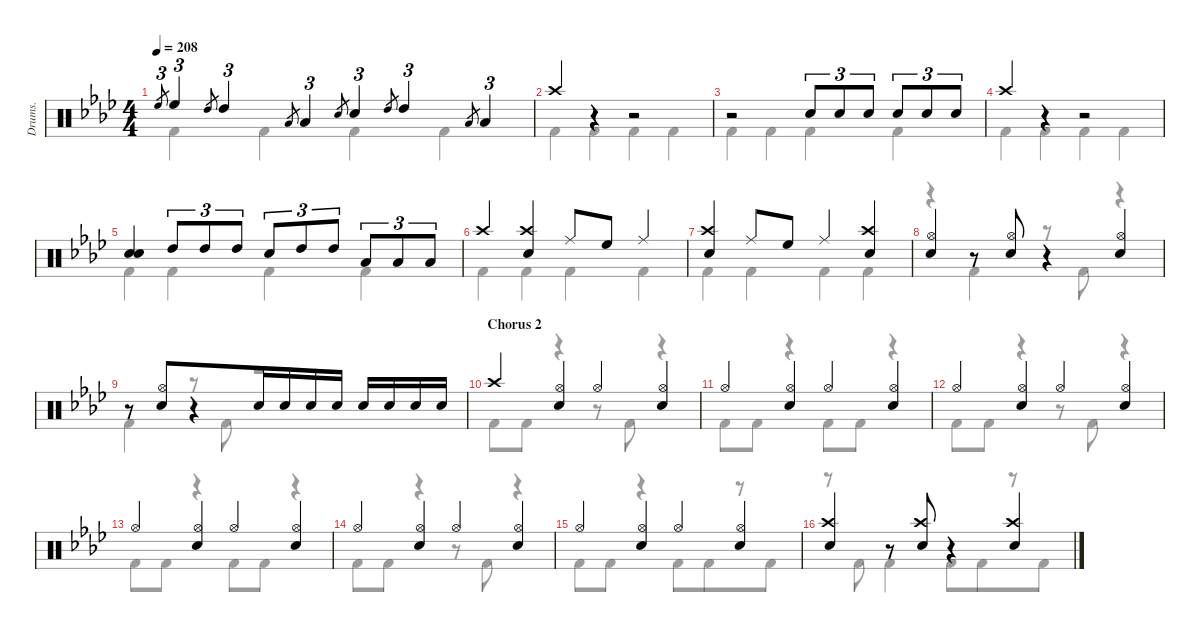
\defaultSystemsLayout 4
\hideDynamics
\otherSystemsTrackNameOrientation horizontal
\track ("Drumkit" "Drums.") {defaultSystemsLayout 4 instrument percussion}
\staff {score}
\articulation defaults
\voice
\ts (4 4)
\tempo 208
\clef neutral
\ks fminor "High Floor Tom (hit)"{acc forcenatural}.8{tu (3 2) gr dy mf} "High Floor Tom (hit)"{acc forcenatural}.4{tu (3 2)} "High Tom (hit)"{acc forcenatural}.8{tu (3 2) gr} "High Tom (hit)"{acc forcenatural}.4{tu (3 2)} "Low Tom (hit)"{acc forcenatural}.8{tu (3 2) gr} "Low Tom (hit)"{acc forcenatural}.4{tu (3 2)} "Snare (hit) 2"{acc forcenatural}.8{tu (3 2) gr} "Snare (hit) 2"{acc forcenatural}.4{tu (3 2)} "High Tom (hit)"{acc forcenatural}.8{tu (3 2) gr} "High Tom (hit)"{acc forcenatural}.4{tu (3 2)} "Low Tom (hit)"{acc forcenatural}.8{tu (3 2) gr} "Low Tom (hit)"{acc forcenatural}.4{tu (3 2)}
|
"Crash high (hit)"{acc forcenatural}.4 r.4 r.2 |
r.2 "Snare (hit) 2"{acc forcenatural}.8{tu (3 2)} "Snare (hit) 2"{acc forcenatural}.8{tu (3 2)} "Snare (hit) 2"{acc forcenatural}.8{tu (3 2)} "Snare (hit) 2"{acc forcenatural}.8{tu (3 2)} "Snare (hit) 2"{acc forcenatural}.8{tu (3 2)} "Snare (hit) 2"{acc forcenatural}.8{tu (3 2)} |
"Crash high (hit)"{acc forcenatural}.4 r.4 r.2 |
("Snare (hit) 2"{acc forcenatural} "Snare (hit) 2"{acc forcenatural}).4 "High Tom (hit)"{acc forcenatural}.8{tu (3 2)} "High Tom (hit)"{acc forcenatural}.8{tu (3 2)} "High Tom (hit)"{acc forcenatural}.8{tu (3 2)} "Snare (hit) 2"{acc forcenatural}.8{tu (3 2)} "High Tom (hit)"{acc forcenatural}.8{tu (3 2)} "High Tom (hit)"{acc forcenatural}.8{tu (3 2)} "Low Tom (hit)"{acc forcenatural}.8{tu (3 2)} "Low Tom (hit)"{acc forcenatural}.8{tu (3 2)} "Low Tom (hit)"{acc forcenatural}.8{tu (3 2)} |
"Crash high (hit)"{acc forcenatural}.4 ("Crash high (hit)"{acc forcenatural} "Snare (hit) 2"{acc forcenatural}).4 "Ride (middle)"{acc forcenatural}.8 "High Floor Tom (hit)"{acc forcenatural}.8 "Ride (middle)"{acc forcenatural}.4 |
("Crash high (hit)"{acc forcenatural} "Snare (hit) 2"{acc forcenatural}).4 "Ride (middle)"{acc forcenatural}.8 "High Floor Tom (hit)"{acc forcenatural}.8 "Ride (middle)"{acc forcenatural}.4 ("Crash high (hit)"{acc forcenatural} "Snare (hit) 2"{acc forcenatural}).4 |
("Hi-Hat (open)"{acc forcenatural} "Snare (hit) 2"{acc forcenatural}).4 r.8 ("Hi-Hat (open)"{acc forcenatural} "Snare (hit) 2"{acc forcenatural}).8 r.4 ("Hi-Hat (open)"{acc forcenatural} "Snare (hit) 2"{acc forcenatural}).4 |
r.8 ("Hi-Hat (open)"{acc forcenatural} "Snare (hit) 2"{acc forcenatural}).8{beam merge} r.4 "Snare (hit) 2"{acc forcenatural}.16 "Snare (hit) 2"{acc forcenatural}.16 "Snare (hit) 2"{acc forcenatural}.16 "Snare (hit) 2"{acc forcenatural}.16 "Snare (hit) 2"{acc forcenatural}.16 "Snare (hit) 2"{acc forcenatural}.16 "Snare (hit) 2"{acc forcenatural}.16 "Snare (hit) 2"{acc forcenatural}.16 |
\section ("" "Chorus 2")
"Crash high (hit)"{acc forcenatural}.4 ("Hi-Hat (open)"{acc forcenatural} "Snare (hit) 2"{acc forcenatural}).4 "Hi-Hat (open)"{acc forcenatural}.4 ("Hi-Hat (open)"{acc forcenatural} "Snare (hit) 2"{acc forcenatural}).4 |
"Hi-Hat (open)"{acc forcenatural}.4 ("Hi-Hat (open)"{acc forcenatural} "Snare (hit) 2"{acc forcenatural}).4 "Hi-Hat (open)"{acc forcenatural}.4 ("Hi-Hat (open)"{acc forcenatural} "Snare (hit) 2"{acc forcenatural}).4 |
"Hi-Hat (open)"{acc forcenatural}.4 ("Hi-Hat (open)"{acc forcenatural} "Snare (hit) 2"{acc forcenatural}).4 "Hi-Hat (open)"{acc forcenatural}.4 ("Hi-Hat (open)"{acc forcenatural} "Snare (hit) 2"{acc forcenatural}).4 |
"Hi-Hat (open)"{acc forcenatural}.4 ("Hi-Hat (open)"{acc forcenatural} "Snare (hit) 2"{acc forcenatural}).4 "Hi-Hat (open)"{acc forcenatural}.4 ("Hi-Hat (open)"{acc forcenatural} "Snare (hit) 2"{acc forcenatural}).4 |
"Hi-Hat (open)"{acc forcenatural}.4 ("Hi-Hat (open)"{acc forcenatural} "Snare (hit) 2"{acc forcenatural}).4 "Hi-Hat (open)"{acc forcenatural}.4 ("Hi-Hat (open)"{acc forcenatural} "Snare (hit) 2"{acc forcenatural}).4 |
"Hi-Hat (open)"{acc forcenatural}.4 ("Hi-Hat (open)"{acc forcenatural} "Snare (hit) 2"{acc forcenatural}).4 "Hi-Hat (open)"{acc forcenatural}.4 ("Hi-Hat (open)"{acc forcenatural} "Snare (hit) 2"{acc forcenatural}).4 |
("Crash high (hit)"{acc forcenatural} "Snare (hit) 2"{acc forcenatural}).4 r.8 ("Crash high (hit)"{acc forcenatural} "Snare (hit) 2"{acc forcenatural}).8 r.4 ("Crash high (hit)"{acc forcenatural} "Snare (hit) 2"{acc forcenatural}).4
\voice
\clef neutral
\ottava regular
\simile none
\ks fminor "Kick (hit) 2"{acc forcenatural}.4{dy mf} "Kick (hit) 2"{acc forcenatural}.4 "Kick (hit) 2"{acc forcenatural}.4 "Kick (hit) 2"{acc forcenatural}.4
|
"Kick (hit) 2"{acc forcenatural}.4 "Kick (hit) 2"{acc forcenatural}.4 "Kick (hit) 2"{acc forcenatural}.4 "Kick (hit) 2"{acc forcenatural}.4 |
"Kick (hit) 2"{acc forcenatural}.4 "Kick (hit) 2"{acc forcenatural}.4 "Kick (hit) 2"{acc forcenatural}.4 "Kick (hit) 2"{acc forcenatural}.4 |
"Kick (hit) 2"{acc forcenatural}.4 "Kick (hit) 2"{acc forcenatural}.4 "Kick (hit) 2"{acc forcenatural}.4 "Kick (hit) 2"{acc forcenatural}.4 |
"Kick (hit) 2"{acc forcenatural}.4 "Kick (hit) 2"{acc forcenatural}.4 "Kick (hit) 2"{acc forcenatural}.4 "Kick (hit) 2"{acc forcenatural}.4 |
"Kick (hit) 2"{acc forcenatural}.4 "Kick (hit) 2"{acc forcenatural}.4 "Kick (hit) 2"{acc forcenatural}.4 "Kick (hit) 2"{acc forcenatural}.4 |
"Kick (hit) 2"{acc forcenatural}.4 "Kick (hit) 2"{acc forcenatural}.4 "Kick (hit) 2"{acc forcenatural}.4 "Kick (hit) 2"{acc forcenatural}.4 |
r.4 "Kick (hit) 2"{acc forcenatural}.4 r.8 "Kick (hit) 2"{acc forcenatural}.8 r.4 |
"Kick (hit) 2"{acc forcenatural}.4 r.8 "Kick (hit) 2"{acc forcenatural}.8 r.2 |
"Kick (hit) 2"{acc forcenatural}.8 "Kick (hit) 2"{acc forcenatural}.8 r.4 r.8 "Kick (hit) 2"{acc forcenatural}.8 r.4 |
"Kick (hit) 2"{acc forcenatural}.8 "Kick (hit) 2"{acc forcenatural}.8 r.4 "Kick (hit) 2"{acc forcenatural}.8 "Kick (hit) 2"{acc forcenatural}.8 r.4 |
"Kick (hit) 2"{acc forcenatural}.8 "Kick (hit) 2"{acc forcenatural}.8 r.4 r.8 "Kick (hit) 2"{acc forcenatural}.8 r.4 |
"Kick (hit) 2"{acc forcenatural}.8 "Kick (hit) 2"{acc forcenatural}.8 r.4 "Kick (hit) 2"{acc forcenatural}.8 "Kick (hit) 2"{acc forcenatural}.8 r.4 |
"Kick (hit) 2"{acc forcenatural}.8 "Kick (hit) 2"{acc forcenatural}.8 r.4 r.8 "Kick (hit) 2"{acc forcenatural}.8 r.4 |
"Kick (hit) 2"{acc forcenatural}.8 "Kick (hit) 2"{acc forcenatural}.8 r.4 "Kick (hit) 2"{acc forcenatural}.8 "Kick (hit) 2"{acc forcenatural}.8{beam merge} r.8{beam merge} "Kick (hit) 2"{acc forcenatural}.8 |
r.8 "Kick (hit) 2"{acc forcenatural}.8 "Kick (hit) 2"{acc forcenatural}.4 "Kick (hit) 2"{acc forcenatural}.8 "Kick (hit) 2"{acc forcenatural}.8{beam merge} r.8{beam merge} "Kick (hit) 2"{acc forcenatural}.8
